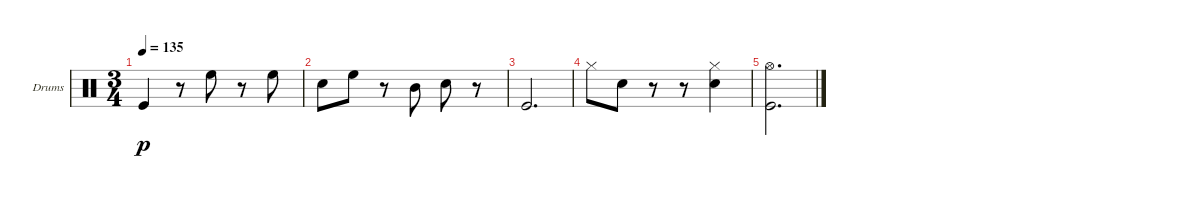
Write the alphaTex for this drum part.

\bracketExtendMode groupsimilarinstruments
\firstSystemTrackNameOrientation horizontal
\otherSystemsTrackNameOrientation horizontal
\track ("Drumkit" "Drums") {instrument percussion}
\staff {score}
\articulation defaults
\ts (3 4)
\tempo 135
\clef neutral
\ks c "Kick (hit)".4{dy p}
r.8 "High Floor Tom (hit)".8 r.8 "High Floor Tom (hit)".8 |
"Snare (hit) 2".8 "High Floor Tom (hit)".8 r.8 "Mid Tom (hit)".8 "Snare (hit) 2".8 r.8 |
"Kick (hit)".2{d} |
"Hi-Hat (closed)".8 "Snare (hit) 2".8 r.8 r.8 ("Hi-Hat (closed)" "Snare (hit) 2").4 |
("Kick (hit)" "Hi-Hat (open)").2{d}
